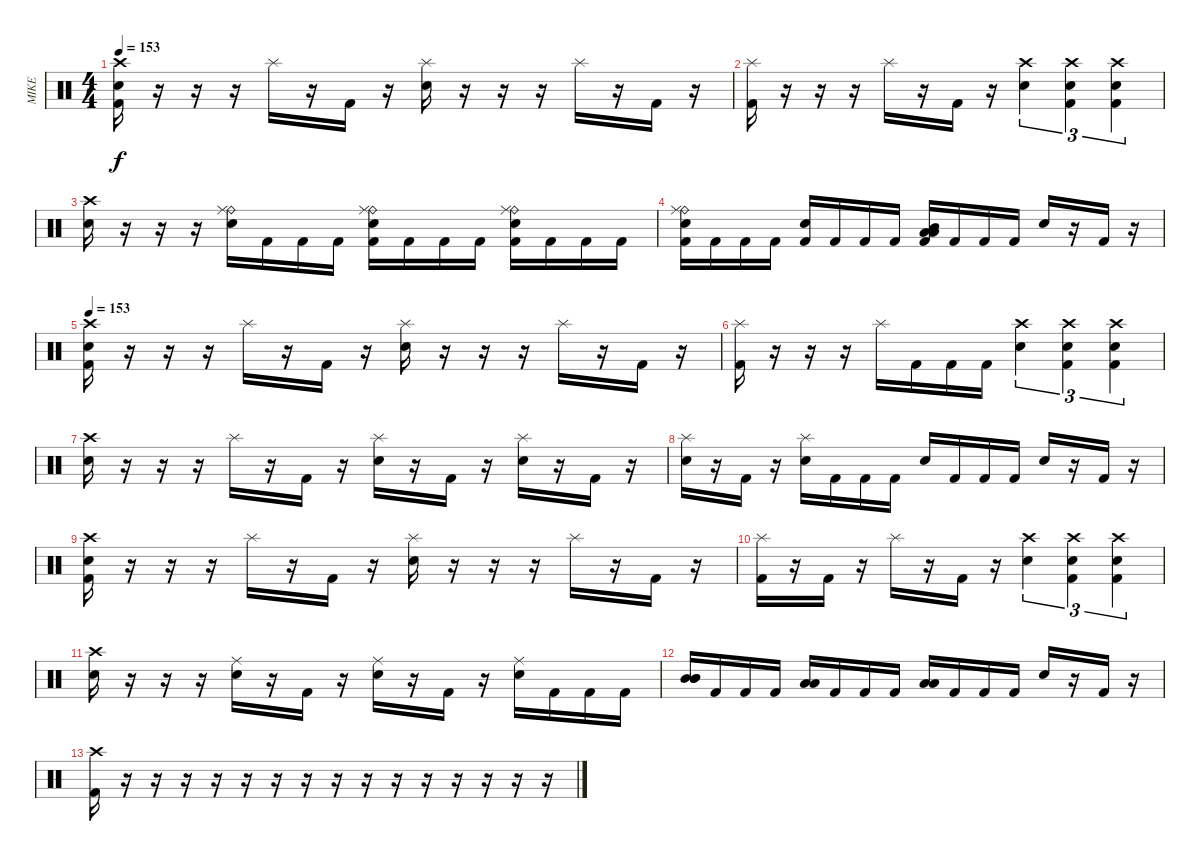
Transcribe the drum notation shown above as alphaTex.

\track ("MIKE" "MIKE") {instrument percussion}
\staff {score}
\articulation defaults
\ts (4 4)
\tempo 153
\clef neutral
\ks c
("Crash high (hit)" "Electric Snare (hit)" "Kick (hit) 2").16{dy f} r.16 r.16 r.16 "Splash (hit)".16 r.16 "Kick (hit) 2".16 r.16 ("Splash (hit)" "Electric Snare (hit)").16 r.16 r.16 r.16 "Splash (hit)".16 r.16 "Kick (hit) 2".16 r.16 |
("Splash (hit)" "Kick (hit) 2").16 r.16 r.16 r.16 "Splash (hit)".16 r.16 "Kick (hit) 2".16 r.16 ("Crash high (hit)" "Electric Snare (hit)").4{tu (3 2)} ("Crash high (hit)" "Electric Snare (hit)" "Kick (hit) 2").4{tu (3 2)} ("Crash high (hit)" "Electric Snare (hit)" "Kick (hit) 2").4{tu (3 2)} |
("Crash high (hit)" "Electric Snare (hit)").16 r.16 r.16 r.16 ("Ride (bell)" "Ride (middle)" "Electric Snare (hit)").16 "Kick (hit) 2".16 "Kick (hit) 2".16 "Kick (hit) 2".16 ("Ride (bell)" "Ride (middle)" "Electric Snare (hit)" "Kick (hit) 2").16 "Kick (hit) 2".16 "Kick (hit) 2".16 "Kick (hit) 2".16 ("Ride (bell)" "Ride (middle)" "Electric Snare (hit)" "Kick (hit) 2").16 "Kick (hit) 2".16 "Kick (hit) 2".16 "Kick (hit) 2".16 |
("Ride (bell)" "Ride (middle)" "Electric Snare (hit)" "Kick (hit) 2").16 "Kick (hit) 2".16 "Kick (hit) 2".16 "Kick (hit) 2".16 ("Electric Snare (hit)" "Kick (hit) 2").16 "Kick (hit) 2".16 "Kick (hit) 2".16 "Kick (hit) 2".16 ("Low Tom (hit)" "Mid Tom (hit)" "Low Floor Tom (hit)" "Kick (hit) 2").16 "Kick (hit) 2".16 "Kick (hit) 2".16 "Kick (hit) 2".16 "Electric Snare (hit)".16 r.16 "Kick (hit) 2".16 r.16 |
\tempo 153
("Crash high (hit)" "Electric Snare (hit)" "Kick (hit) 2").16 r.16 r.16 r.16 "Splash (hit)".16 r.16 "Kick (hit) 2".16 r.16 ("Splash (hit)" "Electric Snare (hit)").16 r.16 r.16 r.16 "Splash (hit)".16 r.16 "Kick (hit) 2".16 r.16 |
("Splash (hit)" "Kick (hit) 2").16 r.16 r.16 r.16 "Splash (hit)".16 "Kick (hit) 2".16 "Kick (hit) 2".16 "Kick (hit) 2".16 ("Crash high (hit)" "Electric Snare (hit)").4{tu (3 2)} ("Crash high (hit)" "Electric Snare (hit)" "Kick (hit) 2").4{tu (3 2)} ("Crash high (hit)" "Electric Snare (hit)" "Kick (hit) 2").4{tu (3 2)} |
("Crash high (hit)" "Electric Snare (hit)").16 r.16 r.16 r.16 "Splash (hit)".16 r.16 "Kick (hit) 2".16 r.16 ("Splash (hit)" "Electric Snare (hit)").16 r.16 "Kick (hit) 2".16 r.16 ("Splash (hit)" "Electric Snare (hit)").16 r.16 "Kick (hit) 2".16 r.16 |
("Splash (hit)" "Electric Snare (hit)").16 r.16 "Kick (hit) 2".16 r.16 ("Splash (hit)" "Electric Snare (hit)").16 "Kick (hit) 2".16 "Kick (hit) 2".16 "Kick (hit) 2".16 "Electric Snare (hit)".16 "Kick (hit) 2".16 "Kick (hit) 2".16 "Kick (hit) 2".16 "Electric Snare (hit)".16 r.16 "Kick (hit) 2".16 r.16 |
("Crash high (hit)" "Electric Snare (hit)" "Kick (hit) 2").16 r.16 r.16 r.16 "Splash (hit)".16 r.16 "Kick (hit) 2".16 r.16 ("Splash (hit)" "Electric Snare (hit)").16 r.16 r.16 r.16 "Splash (hit)".16 r.16 "Kick (hit) 2".16 r.16 |
("Splash (hit)" "Kick (hit) 2").16 r.16 "Kick (hit) 2".16 r.16 "Splash (hit)".16 r.16 "Kick (hit) 2".16 r.16 ("Crash high (hit)" "Electric Snare (hit)").4{tu (3 2)} ("Crash high (hit)" "Electric Snare (hit)" "Kick (hit) 2").4{tu (3 2)} ("Crash high (hit)" "Electric Snare (hit)" "Kick (hit) 2").4{tu (3 2)} |
("Crash high (hit)" "Electric Snare (hit)").16 r.16 r.16 r.16 ("Ride (middle)" "Electric Snare (hit)").16 r.16 "Kick (hit) 2".16 r.16 ("Ride (middle)" "Electric Snare (hit)").16 r.16 "Kick (hit) 2".16 r.16 ("Ride (middle)" "Electric Snare (hit)").16 "Kick (hit) 2".16 "Kick (hit) 2".16 "Kick (hit) 2".16 |
("Mid Tom (hit)" "Mid Tom (hit)" "Mid Tom (hit)").16 "Kick (hit) 2".16 "Kick (hit) 2".16 "Kick (hit) 2".16 ("Low Tom (hit)" "Low Tom (hit)").16 "Kick (hit) 2".16 "Kick (hit) 2".16 "Kick (hit) 2".16 ("Low Floor Tom (hit)" "Low Floor Tom (hit)").16 "Kick (hit) 2".16 "Kick (hit) 2".16 "Kick (hit) 2".16 "Electric Snare (hit)".16 r.16 "Kick (hit) 2".16 r.16 |
("Crash high (hit)" "Kick (hit) 2").16 r.16 r.16 r.16 r.16 r.16 r.16 r.16 r.16 r.16 r.16 r.16 r.16 r.16 r.16 r.16
